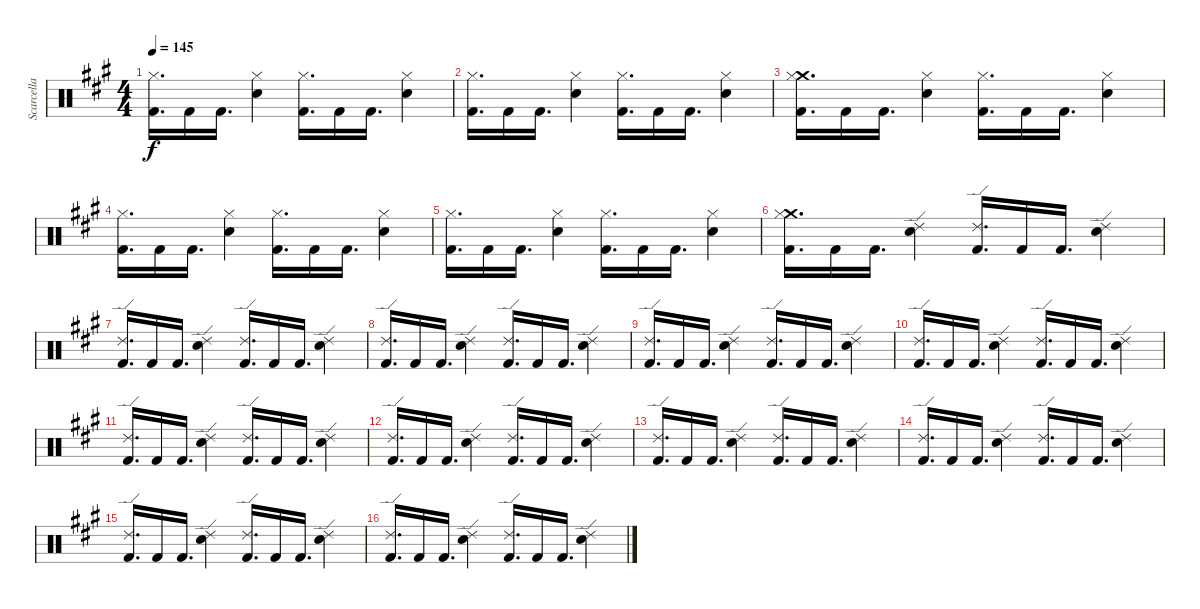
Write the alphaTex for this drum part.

\track ("Scarcella" "Scarcella") {instrument percussion}
\staff {score}
\articulation defaults
\ts (4 4)
\tempo 145
\clef neutral
\ks f#minor
("Hi-Hat (closed)" "Kick (hit) 2").16{d dy f} "Kick (hit) 2".16 "Kick (hit) 2".16{d} ("Hi-Hat (closed)" "Snare (hit) 2").4 ("Hi-Hat (closed)" "Kick (hit) 2").16{d} "Kick (hit) 2".16 "Kick (hit) 2".16{d} ("Hi-Hat (closed)" "Snare (hit) 2").4 |
("Hi-Hat (closed)" "Kick (hit) 2").16{d} "Kick (hit) 2".16 "Kick (hit) 2".16{d} ("Hi-Hat (closed)" "Snare (hit) 2").4 ("Hi-Hat (closed)" "Kick (hit) 2").16{d} "Kick (hit) 2".16 "Kick (hit) 2".16{d} ("Hi-Hat (closed)" "Snare (hit) 2").4 |
("Crash medium (hit)" "Hi-Hat (closed)" "Kick (hit) 2").16{d} "Kick (hit) 2".16 "Kick (hit) 2".16{d} ("Hi-Hat (closed)" "Snare (hit) 2").4 ("Hi-Hat (closed)" "Kick (hit) 2").16{d} "Kick (hit) 2".16 "Kick (hit) 2".16{d} ("Hi-Hat (closed)" "Snare (hit) 2").4 |
("Hi-Hat (closed)" "Kick (hit) 2").16{d} "Kick (hit) 2".16 "Kick (hit) 2".16{d} ("Hi-Hat (closed)" "Snare (hit) 2").4 ("Hi-Hat (closed)" "Kick (hit) 2").16{d} "Kick (hit) 2".16 "Kick (hit) 2".16{d} ("Hi-Hat (closed)" "Snare (hit) 2").4 |
("Hi-Hat (closed)" "Kick (hit) 2").16{d} "Kick (hit) 2".16 "Kick (hit) 2".16{d} ("Hi-Hat (closed)" "Snare (hit) 2").4 ("Hi-Hat (closed)" "Kick (hit) 2").16{d} "Kick (hit) 2".16 "Kick (hit) 2".16{d} ("Hi-Hat (closed)" "Snare (hit) 2").4 |
("Crash medium (hit)" "Hi-Hat (closed)" "Kick (hit) 2").16{d} "Kick (hit) 2".16 "Kick (hit) 2".16{d} ("Ride (edge) 2" "Snare (hit) 2").4 ("Ride (edge) 2" "Kick (hit) 2").16{d} "Kick (hit) 2".16 "Kick (hit) 2".16{d} ("Ride (edge) 2" "Snare (hit) 2").4 |
("Ride (edge) 2" "Kick (hit) 2").16{d} "Kick (hit) 2".16 "Kick (hit) 2".16{d} ("Ride (edge) 2" "Snare (hit) 2").4 ("Ride (edge) 2" "Kick (hit) 2").16{d} "Kick (hit) 2".16 "Kick (hit) 2".16{d} ("Ride (edge) 2" "Snare (hit) 2").4 |
("Ride (edge) 2" "Kick (hit) 2").16{d} "Kick (hit) 2".16 "Kick (hit) 2".16{d} ("Ride (edge) 2" "Snare (hit) 2").4 ("Ride (edge) 2" "Kick (hit) 2").16{d} "Kick (hit) 2".16 "Kick (hit) 2".16{d} ("Ride (edge) 2" "Snare (hit) 2").4 |
("Ride (edge) 2" "Kick (hit) 2").16{d} "Kick (hit) 2".16 "Kick (hit) 2".16{d} ("Ride (edge) 2" "Snare (hit) 2").4 ("Ride (edge) 2" "Kick (hit) 2").16{d} "Kick (hit) 2".16 "Kick (hit) 2".16{d} ("Ride (edge) 2" "Snare (hit) 2").4 |
("Ride (edge) 2" "Kick (hit) 2").16{d} "Kick (hit) 2".16 "Kick (hit) 2".16{d} ("Ride (edge) 2" "Snare (hit) 2").4 ("Ride (edge) 2" "Kick (hit) 2").16{d} "Kick (hit) 2".16 "Kick (hit) 2".16{d} ("Ride (edge) 2" "Snare (hit) 2").4 |
("Ride (edge) 2" "Kick (hit) 2").16{d} "Kick (hit) 2".16 "Kick (hit) 2".16{d} ("Ride (edge) 2" "Snare (hit) 2").4 ("Ride (edge) 2" "Kick (hit) 2").16{d} "Kick (hit) 2".16 "Kick (hit) 2".16{d} ("Ride (edge) 2" "Snare (hit) 2").4 |
("Ride (edge) 2" "Kick (hit) 2").16{d} "Kick (hit) 2".16 "Kick (hit) 2".16{d} ("Ride (edge) 2" "Snare (hit) 2").4 ("Ride (edge) 2" "Kick (hit) 2").16{d} "Kick (hit) 2".16 "Kick (hit) 2".16{d} ("Ride (edge) 2" "Snare (hit) 2").4 |
("Ride (edge) 2" "Kick (hit) 2").16{d} "Kick (hit) 2".16 "Kick (hit) 2".16{d} ("Ride (edge) 2" "Snare (hit) 2").4 ("Ride (edge) 2" "Kick (hit) 2").16{d} "Kick (hit) 2".16 "Kick (hit) 2".16{d} ("Ride (edge) 2" "Snare (hit) 2").4 |
("Ride (edge) 2" "Kick (hit) 2").16{d} "Kick (hit) 2".16 "Kick (hit) 2".16{d} ("Ride (edge) 2" "Snare (hit) 2").4 ("Ride (edge) 2" "Kick (hit) 2").16{d} "Kick (hit) 2".16 "Kick (hit) 2".16{d} ("Ride (edge) 2" "Snare (hit) 2").4 |
("Ride (edge) 2" "Kick (hit) 2").16{d} "Kick (hit) 2".16 "Kick (hit) 2".16{d} ("Ride (edge) 2" "Snare (hit) 2").4 ("Ride (edge) 2" "Kick (hit) 2").16{d} "Kick (hit) 2".16 "Kick (hit) 2".16{d} ("Ride (edge) 2" "Snare (hit) 2").4 |
("Ride (edge) 2" "Kick (hit) 2").16{d} "Kick (hit) 2".16 "Kick (hit) 2".16{d} ("Ride (edge) 2" "Snare (hit) 2").4 ("Ride (edge) 2" "Kick (hit) 2").16{d} "Kick (hit) 2".16 "Kick (hit) 2".16{d} ("Ride (edge) 2" "Snare (hit) 2").4
